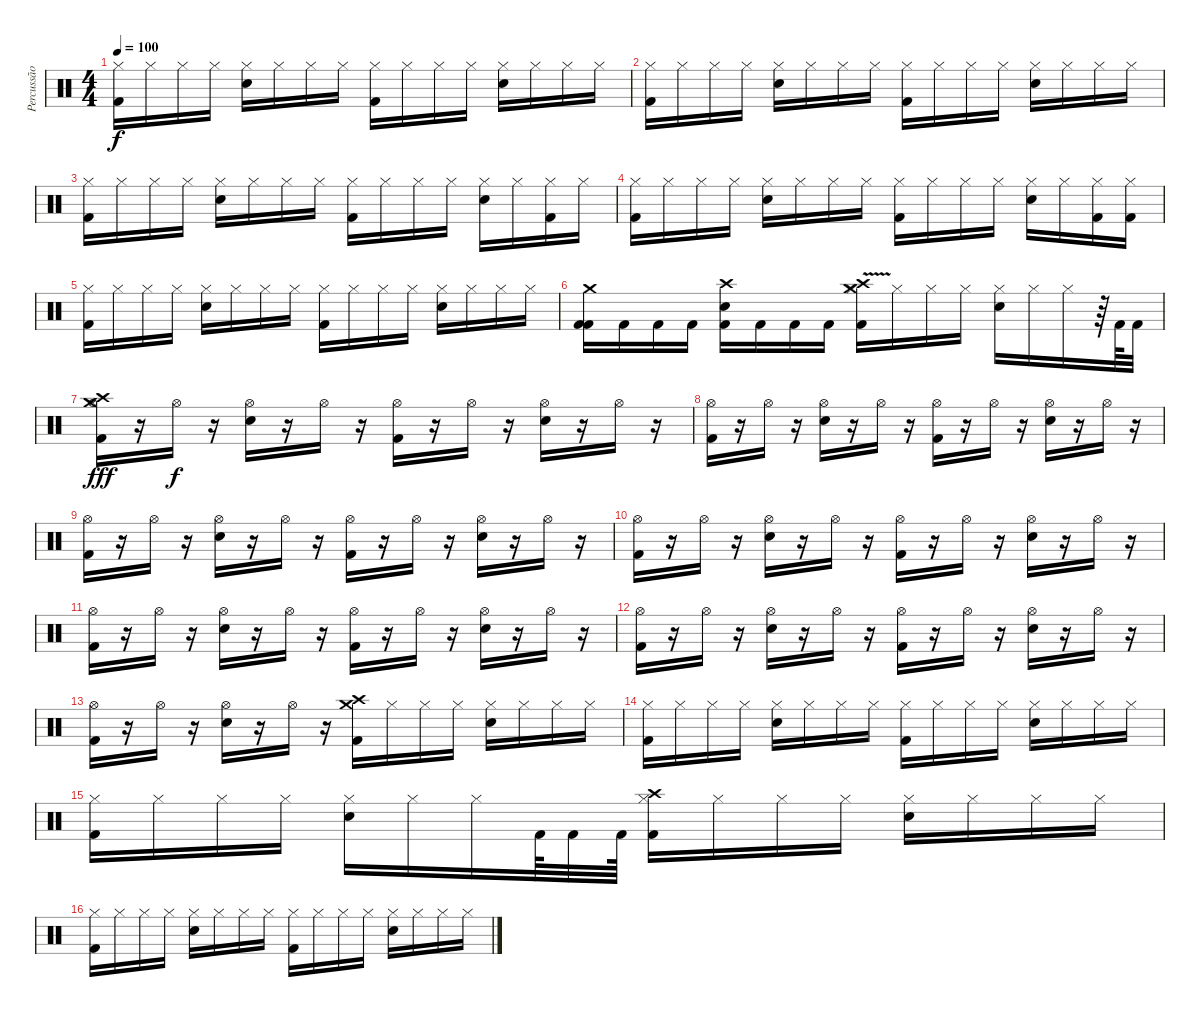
\track ("Percussão" "Percussão") {instrument percussion}
\staff {score}
\articulation defaults
\ts (4 4)
\tempo 100
\clef neutral
\ks c
("Hi-Hat (closed)" "Kick (hit) 2").16{dy f} "Hi-Hat (closed)".16 "Hi-Hat (closed)".16 "Hi-Hat (closed)".16 ("Hi-Hat (closed)" "Snare (hit) 2").16 "Hi-Hat (closed)".16 "Hi-Hat (closed)".16 "Hi-Hat (closed)".16 ("Hi-Hat (closed)" "Kick (hit) 2").16 "Hi-Hat (closed)".16 "Hi-Hat (closed)".16 "Hi-Hat (closed)".16 ("Hi-Hat (closed)" "Snare (hit) 2").16 "Hi-Hat (closed)".16 "Hi-Hat (closed)".16 "Hi-Hat (closed)".16 |
("Hi-Hat (closed)" "Kick (hit) 2").16 "Hi-Hat (closed)".16 "Hi-Hat (closed)".16 "Hi-Hat (closed)".16 ("Hi-Hat (closed)" "Snare (hit) 2").16 "Hi-Hat (closed)".16 "Hi-Hat (closed)".16 "Hi-Hat (closed)".16 ("Hi-Hat (closed)" "Kick (hit) 2").16 "Hi-Hat (closed)".16 "Hi-Hat (closed)".16 "Hi-Hat (closed)".16 ("Hi-Hat (closed)" "Snare (hit) 2").16 "Hi-Hat (closed)".16 "Hi-Hat (closed)".16 "Hi-Hat (closed)".16 |
("Hi-Hat (closed)" "Kick (hit) 2").16 "Hi-Hat (closed)".16 "Hi-Hat (closed)".16 "Hi-Hat (closed)".16 ("Hi-Hat (closed)" "Snare (hit) 2").16 "Hi-Hat (closed)".16 "Hi-Hat (closed)".16 "Hi-Hat (closed)".16 ("Hi-Hat (closed)" "Kick (hit) 2").16 "Hi-Hat (closed)".16 "Hi-Hat (closed)".16 "Hi-Hat (closed)".16 ("Hi-Hat (closed)" "Snare (hit) 2").16 "Hi-Hat (closed)".16 ("Hi-Hat (closed)" "Kick (hit) 2").16 "Hi-Hat (closed)".16 |
("Hi-Hat (closed)" "Kick (hit) 2").16 "Hi-Hat (closed)".16 "Hi-Hat (closed)".16 "Hi-Hat (closed)".16 ("Hi-Hat (closed)" "Snare (hit) 2").16 "Hi-Hat (closed)".16 "Hi-Hat (closed)".16 "Hi-Hat (closed)".16 ("Hi-Hat (closed)" "Kick (hit) 2").16 "Hi-Hat (closed)".16 "Hi-Hat (closed)".16 "Hi-Hat (closed)".16 ("Hi-Hat (closed)" "Snare (hit) 2").16 "Hi-Hat (closed)".16 ("Hi-Hat (closed)" "Kick (hit) 2").16 ("Hi-Hat (closed)" "Kick (hit) 2").16 |
("Hi-Hat (closed)" "Kick (hit) 2").16 "Hi-Hat (closed)".16 "Hi-Hat (closed)".16 "Hi-Hat (closed)".16 ("Hi-Hat (closed)" "Snare (hit) 2").16 "Hi-Hat (closed)".16 "Hi-Hat (closed)".16 "Hi-Hat (closed)".16 ("Hi-Hat (closed)" "Kick (hit) 2").16 "Hi-Hat (closed)".16 "Hi-Hat (closed)".16 "Hi-Hat (closed)".16 ("Hi-Hat (closed)" "Snare (hit) 2").16 "Hi-Hat (closed)".16 "Hi-Hat (closed)".16 "Hi-Hat (closed)".16 |
("Kick (hit) 2" "Kick (hit) 2" "Crash medium (hit)").16 "Kick (hit) 2".16 "Kick (hit) 2".16 "Kick (hit) 2".16 ("Kick (hit) 2" "Snare (hit) 2" "Crash high (hit)").16 "Kick (hit) 2".16 "Kick (hit) 2".16 "Kick (hit) 2".16 ("Hi-Hat (closed)"{v} "Kick (hit) 2"{v} "Crash medium (hit)"{v} "Crash high (hit)"{v}).16 "Hi-Hat (closed)".16 "Hi-Hat (closed)".16 "Hi-Hat (closed)".16 ("Hi-Hat (closed)" "Snare (hit) 2").16 "Hi-Hat (closed)".16 "Hi-Hat (closed)".16 r.64 "Kick (hit) 2".64 "Kick (hit) 2".32 |
("Hi-Hat (open)" "Kick (hit) 2" "Crash medium (hit)" "Crash high (hit)").16{dy fff} r.16 "Hi-Hat (open)".16{dy f} r.16 ("Hi-Hat (open)" "Snare (hit) 2").16 r.16 "Hi-Hat (open)".16 r.16 ("Hi-Hat (open)" "Kick (hit) 2").16 r.16 "Hi-Hat (open)".16 r.16 ("Hi-Hat (open)" "Snare (hit) 2").16 r.16 "Hi-Hat (open)".16 r.16 |
("Hi-Hat (open)" "Kick (hit) 2").16 r.16 "Hi-Hat (open)".16 r.16 ("Hi-Hat (open)" "Snare (hit) 2").16 r.16 "Hi-Hat (open)".16 r.16 ("Hi-Hat (open)" "Kick (hit) 2").16 r.16 "Hi-Hat (open)".16 r.16 ("Hi-Hat (open)" "Snare (hit) 2").16 r.16 "Hi-Hat (open)".16 r.16 |
("Hi-Hat (open)" "Kick (hit) 2").16 r.16 "Hi-Hat (open)".16 r.16 ("Hi-Hat (open)" "Snare (hit) 2").16 r.16 "Hi-Hat (open)".16 r.16 ("Hi-Hat (open)" "Kick (hit) 2").16 r.16 "Hi-Hat (open)".16 r.16 ("Hi-Hat (open)" "Snare (hit) 2").16 r.16 "Hi-Hat (open)".16 r.16 |
("Hi-Hat (open)" "Kick (hit) 2").16 r.16 "Hi-Hat (open)".16 r.16 ("Hi-Hat (open)" "Snare (hit) 2").16 r.16 "Hi-Hat (open)".16 r.16 ("Hi-Hat (open)" "Kick (hit) 2").16 r.16 "Hi-Hat (open)".16 r.16 ("Hi-Hat (open)" "Snare (hit) 2").16 r.16 "Hi-Hat (open)".16 r.16 |
("Hi-Hat (open)" "Kick (hit) 2").16 r.16 "Hi-Hat (open)".16 r.16 ("Hi-Hat (open)" "Snare (hit) 2").16 r.16 "Hi-Hat (open)".16 r.16 ("Hi-Hat (open)" "Kick (hit) 2").16 r.16 "Hi-Hat (open)".16 r.16 ("Hi-Hat (open)" "Snare (hit) 2").16 r.16 "Hi-Hat (open)".16 r.16 |
("Hi-Hat (open)" "Kick (hit) 2").16 r.16 "Hi-Hat (open)".16 r.16 ("Hi-Hat (open)" "Snare (hit) 2").16 r.16 "Hi-Hat (open)".16 r.16 ("Hi-Hat (open)" "Kick (hit) 2").16 r.16 "Hi-Hat (open)".16 r.16 ("Hi-Hat (open)" "Snare (hit) 2").16 r.16 "Hi-Hat (open)".16 r.16 |
("Hi-Hat (open)" "Kick (hit) 2").16 r.16 "Hi-Hat (open)".16 r.16 ("Hi-Hat (open)" "Snare (hit) 2").16 r.16 "Hi-Hat (open)".16 r.16 ("Kick (hit) 2" "Crash medium (hit)" "Crash high (hit)").16 "Hi-Hat (closed)".16 "Hi-Hat (closed)".16 "Hi-Hat (closed)".16 ("Hi-Hat (closed)" "Snare (hit) 2").16 "Hi-Hat (closed)".16 "Hi-Hat (closed)".16 "Hi-Hat (closed)".16 |
("Hi-Hat (closed)" "Kick (hit) 2").16 "Hi-Hat (closed)".16 "Hi-Hat (closed)".16 "Hi-Hat (closed)".16 ("Hi-Hat (closed)" "Snare (hit) 2").16 "Hi-Hat (closed)".16 "Hi-Hat (closed)".16 "Hi-Hat (closed)".16 ("Hi-Hat (closed)" "Kick (hit) 2").16 "Hi-Hat (closed)".16 "Hi-Hat (closed)".16 "Hi-Hat (closed)".16 ("Hi-Hat (closed)" "Snare (hit) 2").16 "Hi-Hat (closed)".16 "Hi-Hat (closed)".16 "Hi-Hat (closed)".16 |
("Hi-Hat (closed)" "Kick (hit) 2").16 "Hi-Hat (closed)".16 "Hi-Hat (closed)".16 "Hi-Hat (closed)".16 ("Hi-Hat (closed)" "Snare (hit) 2").16 "Hi-Hat (closed)".16 "Hi-Hat (closed)".16 "Kick (hit) 2".64 "Kick (hit) 2".32 "Kick (hit) 2".64 ("Hi-Hat (closed)" "Kick (hit) 2" "Crash high (hit)").16 "Hi-Hat (closed)".16 "Hi-Hat (closed)".16 "Hi-Hat (closed)".16 ("Hi-Hat (closed)" "Snare (hit) 2").16 "Hi-Hat (closed)".16 "Hi-Hat (closed)".16 "Hi-Hat (closed)".16 |
("Hi-Hat (closed)" "Kick (hit) 2").16 "Hi-Hat (closed)".16 "Hi-Hat (closed)".16 "Hi-Hat (closed)".16 ("Hi-Hat (closed)" "Snare (hit) 2").16 "Hi-Hat (closed)".16 "Hi-Hat (closed)".16 "Hi-Hat (closed)".16 ("Hi-Hat (closed)" "Kick (hit) 2").16 "Hi-Hat (closed)".16 "Hi-Hat (closed)".16 "Hi-Hat (closed)".16 ("Hi-Hat (closed)" "Snare (hit) 2").16 "Hi-Hat (closed)".16 "Hi-Hat (closed)".16 "Hi-Hat (closed)".16
